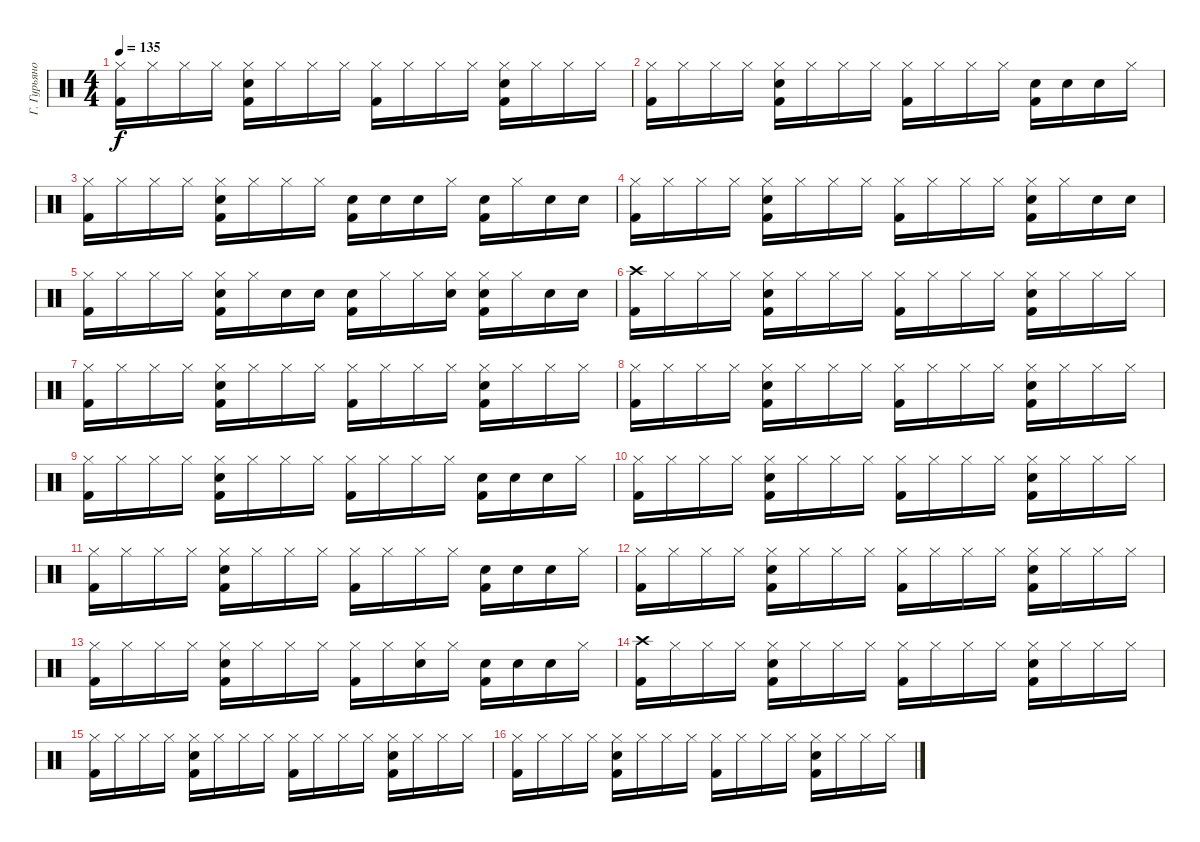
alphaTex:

\track ("Г. Гурьянов" "Г. Гурьяно") {instrument percussion}
\staff {score}
\articulation defaults
\ts (4 4)
\tempo 135
\clef neutral
\ks c
("Hi-Hat (closed)" "Kick (hit) 2").16{dy f} "Hi-Hat (closed)".16 "Hi-Hat (closed)".16 "Hi-Hat (closed)".16 ("Hi-Hat (closed)" "Electric Snare (hit)" "Kick (hit) 2").16 "Hi-Hat (closed)".16 "Hi-Hat (closed)".16 "Hi-Hat (closed)".16 ("Hi-Hat (closed)" "Kick (hit) 2").16 "Hi-Hat (closed)".16 "Hi-Hat (closed)".16 "Hi-Hat (closed)".16 ("Hi-Hat (closed)" "Electric Snare (hit)" "Kick (hit) 2").16 "Hi-Hat (closed)".16 "Hi-Hat (closed)".16 "Hi-Hat (closed)".16 |
("Hi-Hat (closed)" "Kick (hit) 2").16 "Hi-Hat (closed)".16 "Hi-Hat (closed)".16 "Hi-Hat (closed)".16 ("Hi-Hat (closed)" "Electric Snare (hit)" "Kick (hit) 2").16 "Hi-Hat (closed)".16 "Hi-Hat (closed)".16 "Hi-Hat (closed)".16 ("Hi-Hat (closed)" "Kick (hit) 2").16 "Hi-Hat (closed)".16 "Hi-Hat (closed)".16 "Hi-Hat (closed)".16 ("Electric Snare (hit)" "Kick (hit) 2").16 "Electric Snare (hit)".16 "Electric Snare (hit)".16 "Hi-Hat (closed)".16 |
("Hi-Hat (closed)" "Kick (hit) 2").16 "Hi-Hat (closed)".16 "Hi-Hat (closed)".16 "Hi-Hat (closed)".16 ("Hi-Hat (closed)" "Electric Snare (hit)" "Kick (hit) 2").16 "Hi-Hat (closed)".16 "Hi-Hat (closed)".16 "Hi-Hat (closed)".16 ("Electric Snare (hit)" "Kick (hit) 2").16 "Electric Snare (hit)".16 "Electric Snare (hit)".16 "Hi-Hat (closed)".16 ("Electric Snare (hit)" "Kick (hit) 2").16 "Hi-Hat (closed)".16 "Electric Snare (hit)".16 "Electric Snare (hit)".16 |
("Hi-Hat (closed)" "Kick (hit) 2").16 "Hi-Hat (closed)".16 "Hi-Hat (closed)".16 "Hi-Hat (closed)".16 ("Hi-Hat (closed)" "Electric Snare (hit)" "Kick (hit) 2").16 "Hi-Hat (closed)".16 "Hi-Hat (closed)".16 "Hi-Hat (closed)".16 ("Hi-Hat (closed)" "Kick (hit) 2").16 "Hi-Hat (closed)".16 "Hi-Hat (closed)".16 "Hi-Hat (closed)".16 ("Hi-Hat (closed)" "Electric Snare (hit)" "Kick (hit) 2").16 "Hi-Hat (closed)".16 "Electric Snare (hit)".16 "Electric Snare (hit)".16 |
("Hi-Hat (closed)" "Kick (hit) 2").16 "Hi-Hat (closed)".16 "Hi-Hat (closed)".16 "Hi-Hat (closed)".16 ("Hi-Hat (closed)" "Electric Snare (hit)" "Kick (hit) 2").16 "Hi-Hat (closed)".16 "Electric Snare (hit)".16 "Electric Snare (hit)".16 ("Electric Snare (hit)" "Kick (hit) 2").16 "Hi-Hat (closed)".16 "Hi-Hat (closed)".16 ("Hi-Hat (closed)" "Electric Snare (hit)").16 ("Hi-Hat (closed)" "Electric Snare (hit)" "Kick (hit) 2").16 "Hi-Hat (closed)".16 "Electric Snare (hit)".16 "Electric Snare (hit)".16 |
("Crash high (hit)" "Kick (hit) 2").16 "Hi-Hat (closed)".16 "Hi-Hat (closed)".16 "Hi-Hat (closed)".16 ("Hi-Hat (closed)" "Electric Snare (hit)" "Kick (hit) 2").16 "Hi-Hat (closed)".16 "Hi-Hat (closed)".16 "Hi-Hat (closed)".16 ("Hi-Hat (closed)" "Kick (hit) 2").16 "Hi-Hat (closed)".16 "Hi-Hat (closed)".16 "Hi-Hat (closed)".16 ("Hi-Hat (closed)" "Electric Snare (hit)" "Kick (hit) 2").16 "Hi-Hat (closed)".16 "Hi-Hat (closed)".16 "Hi-Hat (closed)".16 |
("Hi-Hat (closed)" "Kick (hit) 2").16 "Hi-Hat (closed)".16 "Hi-Hat (closed)".16 "Hi-Hat (closed)".16 ("Hi-Hat (closed)" "Electric Snare (hit)" "Kick (hit) 2").16 "Hi-Hat (closed)".16 "Hi-Hat (closed)".16 "Hi-Hat (closed)".16 ("Hi-Hat (closed)" "Kick (hit) 2").16 "Hi-Hat (closed)".16 "Hi-Hat (closed)".16 "Hi-Hat (closed)".16 ("Hi-Hat (closed)" "Electric Snare (hit)" "Kick (hit) 2").16 "Hi-Hat (closed)".16 "Hi-Hat (closed)".16 "Hi-Hat (closed)".16 |
("Hi-Hat (closed)" "Kick (hit) 2").16 "Hi-Hat (closed)".16 "Hi-Hat (closed)".16 "Hi-Hat (closed)".16 ("Hi-Hat (closed)" "Electric Snare (hit)" "Kick (hit) 2").16 "Hi-Hat (closed)".16 "Hi-Hat (closed)".16 "Hi-Hat (closed)".16 ("Hi-Hat (closed)" "Kick (hit) 2").16 "Hi-Hat (closed)".16 "Hi-Hat (closed)".16 "Hi-Hat (closed)".16 ("Hi-Hat (closed)" "Electric Snare (hit)" "Kick (hit) 2").16 "Hi-Hat (closed)".16 "Hi-Hat (closed)".16 "Hi-Hat (closed)".16 |
("Hi-Hat (closed)" "Kick (hit) 2").16 "Hi-Hat (closed)".16 "Hi-Hat (closed)".16 "Hi-Hat (closed)".16 ("Hi-Hat (closed)" "Electric Snare (hit)" "Kick (hit) 2").16 "Hi-Hat (closed)".16 "Hi-Hat (closed)".16 "Hi-Hat (closed)".16 ("Hi-Hat (closed)" "Kick (hit) 2").16 "Hi-Hat (closed)".16 "Hi-Hat (closed)".16 "Hi-Hat (closed)".16 ("Electric Snare (hit)" "Kick (hit) 2").16 "Electric Snare (hit)".16 "Electric Snare (hit)".16 "Hi-Hat (closed)".16 |
("Hi-Hat (closed)" "Kick (hit) 2").16 "Hi-Hat (closed)".16 "Hi-Hat (closed)".16 "Hi-Hat (closed)".16 ("Hi-Hat (closed)" "Electric Snare (hit)" "Kick (hit) 2").16 "Hi-Hat (closed)".16 "Hi-Hat (closed)".16 "Hi-Hat (closed)".16 ("Hi-Hat (closed)" "Kick (hit) 2").16 "Hi-Hat (closed)".16 "Hi-Hat (closed)".16 "Hi-Hat (closed)".16 ("Hi-Hat (closed)" "Electric Snare (hit)" "Kick (hit) 2").16 "Hi-Hat (closed)".16 "Hi-Hat (closed)".16 "Hi-Hat (closed)".16 |
("Hi-Hat (closed)" "Kick (hit) 2").16 "Hi-Hat (closed)".16 "Hi-Hat (closed)".16 "Hi-Hat (closed)".16 ("Hi-Hat (closed)" "Electric Snare (hit)" "Kick (hit) 2").16 "Hi-Hat (closed)".16 "Hi-Hat (closed)".16 "Hi-Hat (closed)".16 ("Hi-Hat (closed)" "Kick (hit) 2").16 "Hi-Hat (closed)".16 "Hi-Hat (closed)".16 "Hi-Hat (closed)".16 ("Electric Snare (hit)" "Kick (hit) 2").16 "Electric Snare (hit)".16 "Electric Snare (hit)".16 "Hi-Hat (closed)".16 |
("Hi-Hat (closed)" "Kick (hit) 2").16 "Hi-Hat (closed)".16 "Hi-Hat (closed)".16 "Hi-Hat (closed)".16 ("Hi-Hat (closed)" "Electric Snare (hit)" "Kick (hit) 2").16 "Hi-Hat (closed)".16 "Hi-Hat (closed)".16 "Hi-Hat (closed)".16 ("Hi-Hat (closed)" "Kick (hit) 2").16 "Hi-Hat (closed)".16 "Hi-Hat (closed)".16 "Hi-Hat (closed)".16 ("Hi-Hat (closed)" "Electric Snare (hit)" "Kick (hit) 2").16 "Hi-Hat (closed)".16 "Hi-Hat (closed)".16 "Hi-Hat (closed)".16 |
("Hi-Hat (closed)" "Kick (hit) 2").16 "Hi-Hat (closed)".16 "Hi-Hat (closed)".16 "Hi-Hat (closed)".16 ("Hi-Hat (closed)" "Electric Snare (hit)" "Kick (hit) 2").16 "Hi-Hat (closed)".16 "Hi-Hat (closed)".16 "Hi-Hat (closed)".16 ("Hi-Hat (closed)" "Kick (hit) 2").16 "Hi-Hat (closed)".16 ("Hi-Hat (closed)" "Electric Snare (hit)").16 "Hi-Hat (closed)".16 ("Electric Snare (hit)" "Kick (hit) 2").16 "Electric Snare (hit)".16 "Electric Snare (hit)".16 "Hi-Hat (closed)".16 |
("Crash high (hit)" "Kick (hit) 2").16 "Hi-Hat (closed)".16 "Hi-Hat (closed)".16 "Hi-Hat (closed)".16 ("Hi-Hat (closed)" "Electric Snare (hit)" "Kick (hit) 2").16 "Hi-Hat (closed)".16 "Hi-Hat (closed)".16 "Hi-Hat (closed)".16 ("Hi-Hat (closed)" "Kick (hit) 2").16 "Hi-Hat (closed)".16 "Hi-Hat (closed)".16 "Hi-Hat (closed)".16 ("Hi-Hat (closed)" "Electric Snare (hit)" "Kick (hit) 2").16 "Hi-Hat (closed)".16 "Hi-Hat (closed)".16 "Hi-Hat (closed)".16 |
("Hi-Hat (closed)" "Kick (hit) 2").16 "Hi-Hat (closed)".16 "Hi-Hat (closed)".16 "Hi-Hat (closed)".16 ("Hi-Hat (closed)" "Electric Snare (hit)" "Kick (hit) 2").16 "Hi-Hat (closed)".16 "Hi-Hat (closed)".16 "Hi-Hat (closed)".16 ("Hi-Hat (closed)" "Kick (hit) 2").16 "Hi-Hat (closed)".16 "Hi-Hat (closed)".16 "Hi-Hat (closed)".16 ("Hi-Hat (closed)" "Electric Snare (hit)" "Kick (hit) 2").16 "Hi-Hat (closed)".16 "Hi-Hat (closed)".16 "Hi-Hat (closed)".16 |
("Hi-Hat (closed)" "Kick (hit) 2").16 "Hi-Hat (closed)".16 "Hi-Hat (closed)".16 "Hi-Hat (closed)".16 ("Hi-Hat (closed)" "Electric Snare (hit)" "Kick (hit) 2").16 "Hi-Hat (closed)".16 "Hi-Hat (closed)".16 "Hi-Hat (closed)".16 ("Hi-Hat (closed)" "Kick (hit) 2").16 "Hi-Hat (closed)".16 "Hi-Hat (closed)".16 "Hi-Hat (closed)".16 ("Hi-Hat (closed)" "Electric Snare (hit)" "Kick (hit) 2").16 "Hi-Hat (closed)".16 "Hi-Hat (closed)".16 "Hi-Hat (closed)".16
